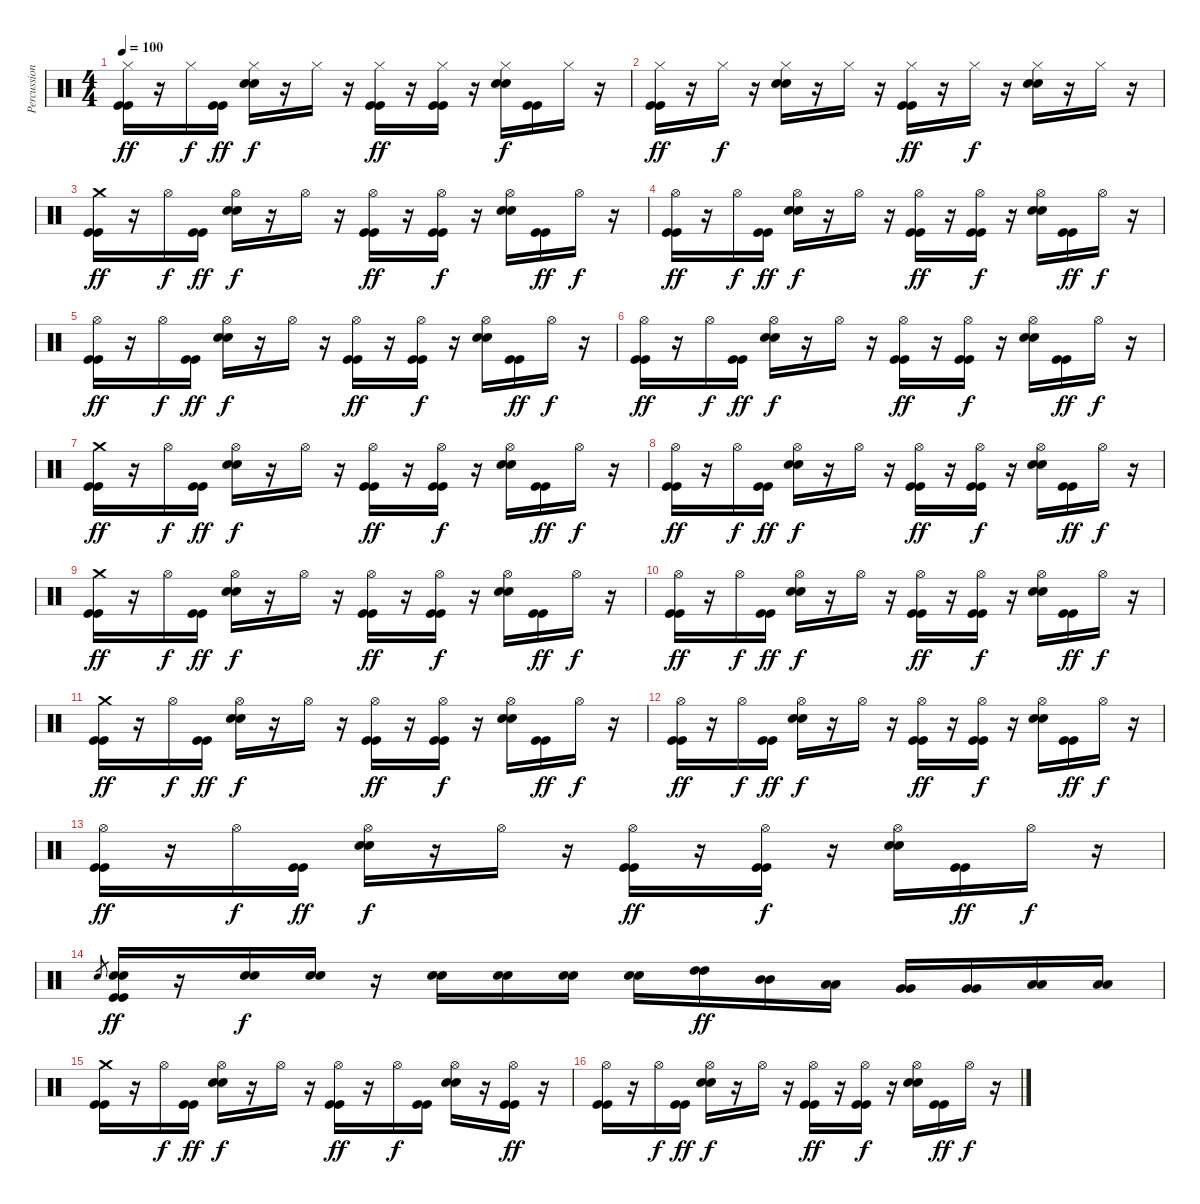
\track ("Percussions" "Percussion") {instrument percussion}
\staff {score}
\articulation defaults
\ts (4 4)
\tempo 100
\clef neutral
\ks c
("Hi-Hat (closed)" "Kick (hit)" "Kick (hit)").16{dy ff} r.16 "Hi-Hat (closed)".16{dy f} ("Kick (hit)" "Kick (hit)").16{dy ff} ("Hi-Hat (closed)" "Electric Snare (hit)" "Electric Snare (hit)").16{dy f} r.16 "Hi-Hat (closed)".16 r.16 ("Hi-Hat (closed)" "Kick (hit)" "Kick (hit)").16{dy ff} r.16 ("Hi-Hat (closed)" "Kick (hit)" "Kick (hit)").16 r.16 ("Hi-Hat (closed)" "Electric Snare (hit)" "Electric Snare (hit)").16{dy f} ("Kick (hit)" "Kick (hit)").16 "Hi-Hat (closed)".16 r.16 |
("Hi-Hat (closed)" "Kick (hit)" "Kick (hit)").16{dy ff} r.16 "Hi-Hat (closed)".16{dy f} r.16 ("Hi-Hat (closed)" "Electric Snare (hit)" "Electric Snare (hit)").16 r.16 "Hi-Hat (closed)".16 r.16 ("Hi-Hat (closed)" "Kick (hit)" "Kick (hit)").16{dy ff} r.16 "Hi-Hat (closed)".16{dy f} r.16 ("Hi-Hat (closed)" "Electric Snare (hit)" "Electric Snare (hit)").16 r.16 "Hi-Hat (closed)".16 r.16 |
("Crash medium (hit)" "Kick (hit)" "Kick (hit)").16{dy ff} r.16 "Hi-Hat (open)".16{dy f} ("Kick (hit)" "Kick (hit)").16{dy ff} ("Hi-Hat (open)" "Electric Snare (hit)" "Electric Snare (hit)").16{dy f} r.16 "Hi-Hat (open)".16 r.16 ("Hi-Hat (open)" "Kick (hit)" "Kick (hit)").16{dy ff} r.16 ("Hi-Hat (open)" "Kick (hit)" "Kick (hit)").16{dy f} r.16 ("Hi-Hat (open)" "Electric Snare (hit)" "Electric Snare (hit)").16 ("Kick (hit)" "Kick (hit)").16{dy ff} "Hi-Hat (open)".16{dy f} r.16 |
("Hi-Hat (open)" "Kick (hit)" "Kick (hit)").16{dy ff} r.16 "Hi-Hat (open)".16{dy f} ("Kick (hit)" "Kick (hit)").16{dy ff} ("Hi-Hat (open)" "Electric Snare (hit)" "Electric Snare (hit)").16{dy f} r.16 "Hi-Hat (open)".16 r.16 ("Hi-Hat (open)" "Kick (hit)" "Kick (hit)").16{dy ff} r.16 ("Hi-Hat (open)" "Kick (hit)" "Kick (hit)").16{dy f} r.16 ("Hi-Hat (open)" "Electric Snare (hit)" "Electric Snare (hit)").16 ("Kick (hit)" "Kick (hit)").16{dy ff} "Hi-Hat (open)".16{dy f} r.16 |
("Hi-Hat (open)" "Kick (hit)" "Kick (hit)").16{dy ff} r.16 "Hi-Hat (open)".16{dy f} ("Kick (hit)" "Kick (hit)").16{dy ff} ("Hi-Hat (open)" "Electric Snare (hit)" "Electric Snare (hit)").16{dy f} r.16 "Hi-Hat (open)".16 r.16 ("Hi-Hat (open)" "Kick (hit)" "Kick (hit)").16{dy ff} r.16 ("Hi-Hat (open)" "Kick (hit)" "Kick (hit)").16{dy f} r.16 ("Hi-Hat (open)" "Electric Snare (hit)" "Electric Snare (hit)").16 ("Kick (hit)" "Kick (hit)").16{dy ff} "Hi-Hat (open)".16{dy f} r.16 |
("Hi-Hat (open)" "Kick (hit)" "Kick (hit)").16{dy ff} r.16 "Hi-Hat (open)".16{dy f} ("Kick (hit)" "Kick (hit)").16{dy ff} ("Hi-Hat (open)" "Electric Snare (hit)" "Electric Snare (hit)").16{dy f} r.16 "Hi-Hat (open)".16 r.16 ("Hi-Hat (open)" "Kick (hit)" "Kick (hit)").16{dy ff} r.16 ("Hi-Hat (open)" "Kick (hit)" "Kick (hit)").16{dy f} r.16 ("Hi-Hat (open)" "Electric Snare (hit)" "Electric Snare (hit)").16 ("Kick (hit)" "Kick (hit)").16{dy ff} "Hi-Hat (open)".16{dy f} r.16 |
("Crash medium (hit)" "Kick (hit)" "Kick (hit)").16{dy ff} r.16 "Hi-Hat (open)".16{dy f} ("Kick (hit)" "Kick (hit)").16{dy ff} ("Hi-Hat (open)" "Electric Snare (hit)" "Electric Snare (hit)").16{dy f} r.16 "Hi-Hat (open)".16 r.16 ("Hi-Hat (open)" "Kick (hit)" "Kick (hit)").16{dy ff} r.16 ("Hi-Hat (open)" "Kick (hit)" "Kick (hit)").16{dy f} r.16 ("Hi-Hat (open)" "Electric Snare (hit)" "Electric Snare (hit)").16 ("Kick (hit)" "Kick (hit)").16{dy ff} "Hi-Hat (open)".16{dy f} r.16 |
("Hi-Hat (open)" "Kick (hit)" "Kick (hit)").16{dy ff} r.16 "Hi-Hat (open)".16{dy f} ("Kick (hit)" "Kick (hit)").16{dy ff} ("Hi-Hat (open)" "Electric Snare (hit)" "Electric Snare (hit)").16{dy f} r.16 "Hi-Hat (open)".16 r.16 ("Hi-Hat (open)" "Kick (hit)" "Kick (hit)").16{dy ff} r.16 ("Hi-Hat (open)" "Kick (hit)" "Kick (hit)").16{dy f} r.16 ("Hi-Hat (open)" "Electric Snare (hit)" "Electric Snare (hit)").16 ("Kick (hit)" "Kick (hit)").16{dy ff} "Hi-Hat (open)".16{dy f} r.16 |
("Crash medium (hit)" "Kick (hit)" "Kick (hit)").16{dy ff} r.16 "Hi-Hat (open)".16{dy f} ("Kick (hit)" "Kick (hit)").16{dy ff} ("Hi-Hat (open)" "Electric Snare (hit)" "Electric Snare (hit)").16{dy f} r.16 "Hi-Hat (open)".16 r.16 ("Hi-Hat (open)" "Kick (hit)" "Kick (hit)").16{dy ff} r.16 ("Hi-Hat (open)" "Kick (hit)" "Kick (hit)").16{dy f} r.16 ("Hi-Hat (open)" "Electric Snare (hit)" "Electric Snare (hit)").16 ("Kick (hit)" "Kick (hit)").16{dy ff} "Hi-Hat (open)".16{dy f} r.16 |
("Hi-Hat (open)" "Kick (hit)" "Kick (hit)").16{dy ff} r.16 "Hi-Hat (open)".16{dy f} ("Kick (hit)" "Kick (hit)").16{dy ff} ("Hi-Hat (open)" "Electric Snare (hit)" "Electric Snare (hit)").16{dy f} r.16 "Hi-Hat (open)".16 r.16 ("Hi-Hat (open)" "Kick (hit)" "Kick (hit)").16{dy ff} r.16 ("Hi-Hat (open)" "Kick (hit)" "Kick (hit)").16{dy f} r.16 ("Hi-Hat (open)" "Electric Snare (hit)" "Electric Snare (hit)").16 ("Kick (hit)" "Kick (hit)").16{dy ff} "Hi-Hat (open)".16{dy f} r.16 |
("Crash medium (hit)" "Kick (hit)" "Kick (hit)").16{dy ff} r.16 "Hi-Hat (open)".16{dy f} ("Kick (hit)" "Kick (hit)").16{dy ff} ("Hi-Hat (open)" "Electric Snare (hit)" "Electric Snare (hit)").16{dy f} r.16 "Hi-Hat (open)".16 r.16 ("Hi-Hat (open)" "Kick (hit)" "Kick (hit)").16{dy ff} r.16 ("Hi-Hat (open)" "Kick (hit)" "Kick (hit)").16{dy f} r.16 ("Hi-Hat (open)" "Electric Snare (hit)" "Electric Snare (hit)").16 ("Kick (hit)" "Kick (hit)").16{dy ff} "Hi-Hat (open)".16{dy f} r.16 |
("Hi-Hat (open)" "Kick (hit)" "Kick (hit)").16{dy ff} r.16 "Hi-Hat (open)".16{dy f} ("Kick (hit)" "Kick (hit)").16{dy ff} ("Hi-Hat (open)" "Electric Snare (hit)" "Electric Snare (hit)").16{dy f} r.16 "Hi-Hat (open)".16 r.16 ("Hi-Hat (open)" "Kick (hit)" "Kick (hit)").16{dy ff} r.16 ("Hi-Hat (open)" "Kick (hit)" "Kick (hit)").16{dy f} r.16 ("Hi-Hat (open)" "Electric Snare (hit)" "Electric Snare (hit)").16 ("Kick (hit)" "Kick (hit)").16{dy ff} "Hi-Hat (open)".16{dy f} r.16 |
("Hi-Hat (open)" "Kick (hit)" "Kick (hit)").16{dy ff} r.16 "Hi-Hat (open)".16{dy f} ("Kick (hit)" "Kick (hit)").16{dy ff} ("Hi-Hat (open)" "Electric Snare (hit)" "Electric Snare (hit)").16{dy f} r.16 "Hi-Hat (open)".16 r.16 ("Hi-Hat (open)" "Kick (hit)" "Kick (hit)").16{dy ff} r.16 ("Hi-Hat (open)" "Kick (hit)" "Kick (hit)").16{dy f} r.16 ("Hi-Hat (open)" "Electric Snare (hit)" "Electric Snare (hit)").16 ("Kick (hit)" "Kick (hit)").16{dy ff} "Hi-Hat (open)".16{dy f} r.16 |
"Electric Snare (hit)".8{gr} ("Electric Snare (hit)" "Electric Snare (hit)" "Kick (hit)" "Kick (hit)").16{dy ff} r.16 ("Electric Snare (hit)" "Electric Snare (hit)").16{dy f} ("Electric Snare (hit)" "Electric Snare (hit)").16 r.16 ("Electric Snare (hit)" "Electric Snare (hit)").16 ("Electric Snare (hit)" "Electric Snare (hit)").16 ("Electric Snare (hit)" "Electric Snare (hit)").16 ("Electric Snare (hit)" "Electric Snare (hit)").16 ("High Tom (hit)" "High Tom (hit)").16{dy ff} ("Mid Tom (hit)" "Mid Tom (hit)").16 ("Low Tom (hit)" "Low Tom (hit)").16 ("Very Low Tom (hit)" "Very Low Tom (hit)").16 ("Very Low Tom (hit)" "Very Low Tom (hit)").16 ("Low Floor Tom (hit)" "Low Floor Tom (hit)").16 ("Low Floor Tom (hit)" "Low Floor Tom (hit)").16 |
("Crash medium (hit)" "Kick (hit)" "Kick (hit)").16 r.16 "Hi-Hat (open)".16{dy f} ("Kick (hit)" "Kick (hit)").16{dy ff} ("Hi-Hat (open)" "Electric Snare (hit)" "Electric Snare (hit)").16{dy f} r.16 "Hi-Hat (open)".16 r.16 ("Hi-Hat (open)" "Kick (hit)" "Kick (hit)").16{dy ff} r.16 "Hi-Hat (open)".16{dy f} ("Kick (hit)" "Kick (hit)").16 ("Hi-Hat (open)" "Electric Snare (hit)" "Electric Snare (hit)").16 r.16 ("Hi-Hat (open)" "Kick (hit)" "Kick (hit)").16{dy ff} r.16 |
("Hi-Hat (open)" "Kick (hit)" "Kick (hit)").16 r.16 "Hi-Hat (open)".16{dy f} ("Kick (hit)" "Kick (hit)").16{dy ff} ("Hi-Hat (open)" "Electric Snare (hit)" "Electric Snare (hit)").16{dy f} r.16 "Hi-Hat (open)".16 r.16 ("Hi-Hat (open)" "Kick (hit)" "Kick (hit)").16{dy ff} r.16 ("Hi-Hat (open)" "Kick (hit)" "Kick (hit)").16{dy f} r.16 ("Hi-Hat (open)" "Electric Snare (hit)" "Electric Snare (hit)").16 ("Kick (hit)" "Kick (hit)").16{dy ff} "Hi-Hat (open)".16{dy f} r.16
